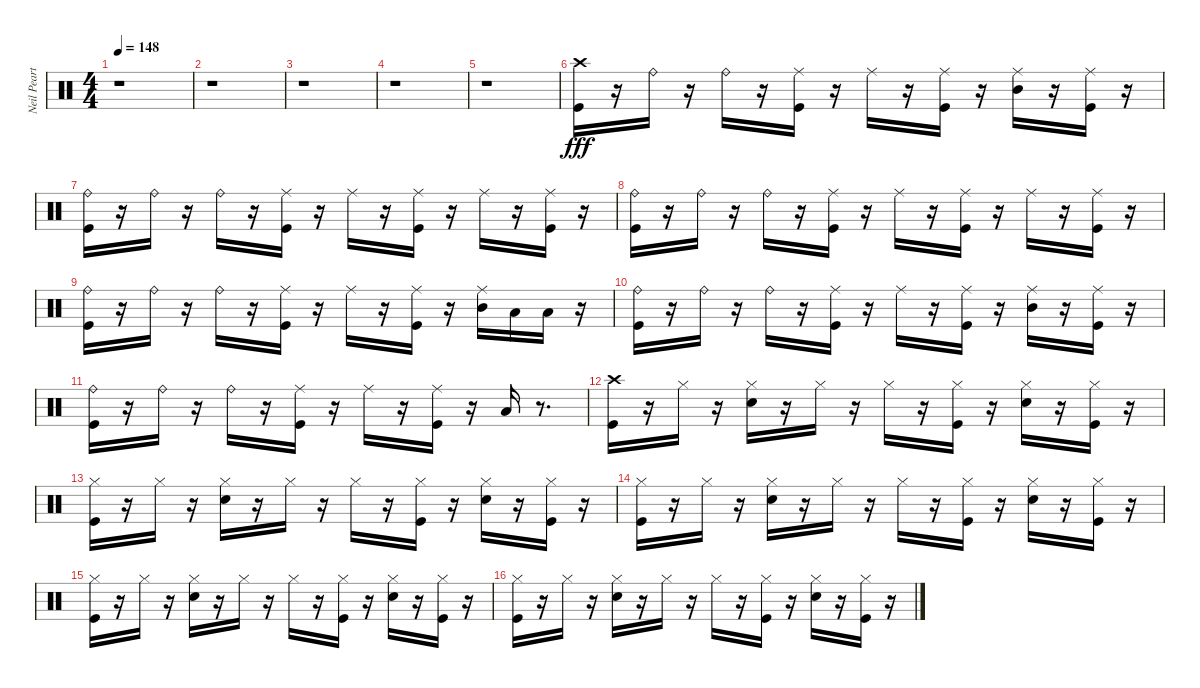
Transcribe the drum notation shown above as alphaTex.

\track ("Neil Peart" "Neil Peart") {instrument percussion}
\staff {score}
\articulation defaults
\ts (4 4)
\tempo 148
\clef neutral
\ks c
r.1{dy fff} |
r.1 |
r.1 |
r.1 |
r.1 |
("Crash high (hit)" "Kick (hit)").16 r.16 "Ride (bell)".16 r.16 "Ride (bell)".16 r.16 ("Kick (hit)" "Ride (middle)").16 r.16 "Ride (middle)".16 r.16 ("Kick (hit)" "Ride (middle)").16 r.16 ("Mid Tom (hit)" "Ride (middle)").16 r.16 ("Kick (hit)" "Ride (middle)").16 r.16 |
("Ride (bell)" "Kick (hit)").16 r.16 "Ride (bell)".16 r.16 "Ride (bell)".16 r.16 ("Ride (middle)" "Kick (hit)").16 r.16 "Ride (middle)".16 r.16 ("Ride (middle)" "Kick (hit)").16 r.16 "Ride (middle)".16 r.16 ("Ride (middle)" "Kick (hit)").16 r.16 |
("Ride (bell)" "Kick (hit)").16 r.16 "Ride (bell)".16 r.16 "Ride (bell)".16 r.16 ("Ride (middle)" "Kick (hit)").16 r.16 "Ride (middle)".16 r.16 ("Ride (middle)" "Kick (hit)").16 r.16 "Ride (middle)".16 r.16 ("Ride (middle)" "Kick (hit)").16 r.16 |
("Kick (hit)" "Ride (bell)").16 r.16 "Ride (bell)".16 r.16 "Ride (bell)".16 r.16 ("Kick (hit)" "Ride (middle)").16 r.16 "Ride (middle)".16 r.16 ("Kick (hit)" "Ride (middle)").16 r.16 ("Mid Tom (hit)" "Ride (middle)").16 "Low Tom (hit)".16 "Low Tom (hit)".16 r.16 |
("Ride (bell)" "Kick (hit)").16 r.16 "Ride (bell)".16 r.16 "Ride (bell)".16 r.16 ("Ride (middle)" "Kick (hit)").16 r.16 "Ride (middle)".16 r.16 ("Ride (middle)" "Kick (hit)").16 r.16 ("Ride (middle)" "Mid Tom (hit)").16 r.16 ("Ride (middle)" "Kick (hit)").16 r.16 |
("Kick (hit)" "Ride (bell)").16 r.16 "Ride (bell)".16 r.16 "Ride (bell)".16 r.16 ("Kick (hit)" "Ride (middle)").16 r.16 "Ride (middle)".16 r.16 ("Kick (hit)" "Ride (middle)").16 r.16 "Low Floor Tom (hit)".16 r.8{d} |
("Crash high (hit)" "Kick (hit)").16 r.16 "Hi-Hat (closed)".16 r.16 ("Snare (hit) 2" "Hi-Hat (closed)").16 r.16 "Hi-Hat (closed)".16 r.16 "Hi-Hat (closed)".16 r.16 ("Kick (hit)" "Hi-Hat (closed)").16 r.16 ("Snare (hit) 2" "Hi-Hat (closed)").16 r.16 ("Kick (hit)" "Hi-Hat (closed)").16 r.16 |
("Hi-Hat (closed)" "Kick (hit)").16 r.16 "Hi-Hat (closed)".16 r.16 ("Hi-Hat (closed)" "Snare (hit) 2").16 r.16 "Hi-Hat (closed)".16 r.16 "Hi-Hat (closed)".16 r.16 ("Hi-Hat (closed)" "Kick (hit)").16 r.16 ("Hi-Hat (closed)" "Snare (hit) 2").16 r.16 ("Hi-Hat (closed)" "Kick (hit)").16 r.16 |
("Hi-Hat (closed)" "Kick (hit)").16 r.16 "Hi-Hat (closed)".16 r.16 ("Hi-Hat (closed)" "Snare (hit) 2").16 r.16 "Hi-Hat (closed)".16 r.16 "Hi-Hat (closed)".16 r.16 ("Hi-Hat (closed)" "Kick (hit)").16 r.16 ("Hi-Hat (closed)" "Snare (hit) 2").16 r.16 ("Hi-Hat (closed)" "Kick (hit)").16 r.16 |
("Hi-Hat (closed)" "Kick (hit)").16 r.16 "Hi-Hat (closed)".16 r.16 ("Hi-Hat (closed)" "Snare (hit) 2").16 r.16 "Hi-Hat (closed)".16 r.16 "Hi-Hat (closed)".16 r.16 ("Hi-Hat (closed)" "Kick (hit)").16 r.16 ("Hi-Hat (closed)" "Snare (hit) 2").16 r.16 ("Hi-Hat (closed)" "Kick (hit)").16 r.16 |
("Hi-Hat (closed)" "Kick (hit)").16 r.16 "Hi-Hat (closed)".16 r.16 ("Hi-Hat (closed)" "Snare (hit) 2").16 r.16 "Hi-Hat (closed)".16 r.16 "Hi-Hat (closed)".16 r.16 ("Hi-Hat (closed)" "Kick (hit)").16 r.16 ("Hi-Hat (closed)" "Snare (hit) 2").16 r.16 ("Hi-Hat (closed)" "Kick (hit)").16 r.16
